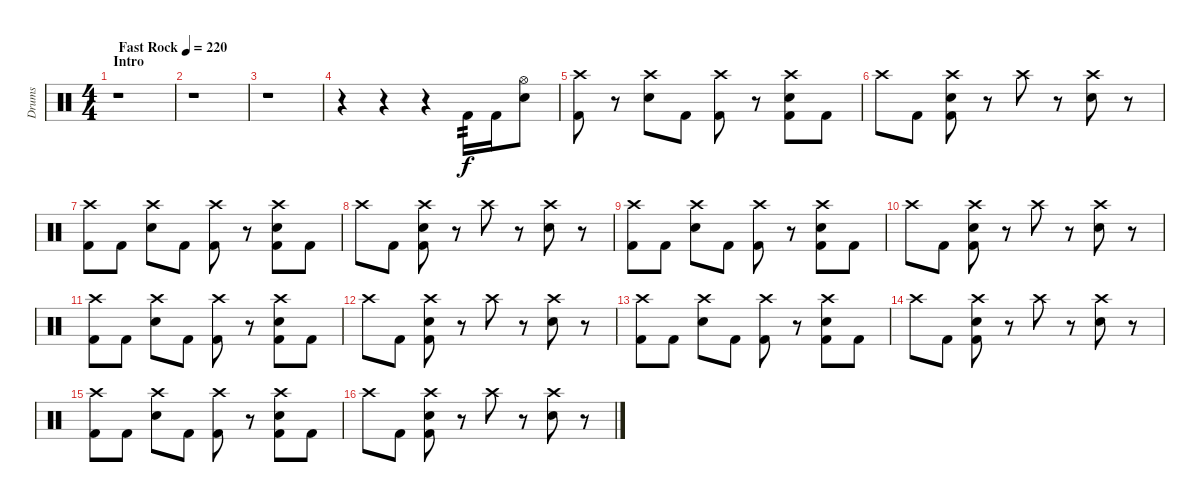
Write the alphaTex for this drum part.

\track ("Drums" "Drums") {instrument percussion}
\staff {score}
\articulation defaults
\ts (4 4)
\section ("" "Intro")
\tempo (220 "Fast Rock")
\clef neutral
\ks c
r.1{dy f} |
r.1 |
r.1 |
r.4 r.4 r.4 "Kick (hit) 2".16{tp 2} "Kick (hit) 2".16 ("Hi-Hat (open)" "Electric Snare (hit)").8 |
("Crash high (hit)" "Kick (hit) 2").8 r.8 ("Crash high (hit)" "Electric Snare (hit)").8 "Kick (hit) 2".8 ("Crash high (hit)" "Kick (hit) 2").8 r.8 ("Crash high (hit)" "Electric Snare (hit)" "Kick (hit) 2").8 "Kick (hit) 2".8 |
"Crash high (hit)".8 "Kick (hit) 2".8 ("Crash high (hit)" "Electric Snare (hit)" "Kick (hit) 2").8 r.8 "Crash high (hit)".8 r.8 ("Crash high (hit)" "Electric Snare (hit)").8 r.8 |
("Crash high (hit)" "Kick (hit) 2").8 "Kick (hit) 2".8 ("Crash high (hit)" "Electric Snare (hit)").8 "Kick (hit) 2".8 ("Crash high (hit)" "Kick (hit) 2").8 r.8 ("Crash high (hit)" "Electric Snare (hit)" "Kick (hit) 2").8 "Kick (hit) 2".8 |
"Crash high (hit)".8 "Kick (hit) 2".8 ("Crash high (hit)" "Electric Snare (hit)" "Kick (hit) 2").8 r.8 "Crash high (hit)".8 r.8 ("Crash high (hit)" "Electric Snare (hit)").8 r.8 |
("Crash high (hit)" "Kick (hit) 2").8 "Kick (hit) 2".8 ("Crash high (hit)" "Electric Snare (hit)").8 "Kick (hit) 2".8 ("Crash high (hit)" "Kick (hit) 2").8 r.8 ("Crash high (hit)" "Electric Snare (hit)" "Kick (hit) 2").8 "Kick (hit) 2".8 |
"Crash high (hit)".8 "Kick (hit) 2".8 ("Crash high (hit)" "Electric Snare (hit)" "Kick (hit) 2").8 r.8 "Crash high (hit)".8 r.8 ("Crash high (hit)" "Electric Snare (hit)").8 r.8 |
("Crash high (hit)" "Kick (hit) 2").8 "Kick (hit) 2".8 ("Crash high (hit)" "Electric Snare (hit)").8 "Kick (hit) 2".8 ("Crash high (hit)" "Kick (hit) 2").8 r.8 ("Crash high (hit)" "Electric Snare (hit)" "Kick (hit) 2").8 "Kick (hit) 2".8 |
"Crash high (hit)".8 "Kick (hit) 2".8 ("Crash high (hit)" "Electric Snare (hit)" "Kick (hit) 2").8 r.8 "Crash high (hit)".8 r.8 ("Crash high (hit)" "Electric Snare (hit)").8 r.8 |
("Crash high (hit)" "Kick (hit) 2").8 "Kick (hit) 2".8 ("Crash high (hit)" "Electric Snare (hit)").8 "Kick (hit) 2".8 ("Crash high (hit)" "Kick (hit) 2").8 r.8 ("Crash high (hit)" "Electric Snare (hit)" "Kick (hit) 2").8 "Kick (hit) 2".8 |
"Crash high (hit)".8 "Kick (hit) 2".8 ("Crash high (hit)" "Electric Snare (hit)" "Kick (hit) 2").8 r.8 "Crash high (hit)".8 r.8 ("Crash high (hit)" "Electric Snare (hit)").8 r.8 |
("Crash high (hit)" "Kick (hit) 2").8 "Kick (hit) 2".8 ("Crash high (hit)" "Electric Snare (hit)").8 "Kick (hit) 2".8 ("Crash high (hit)" "Kick (hit) 2").8 r.8 ("Crash high (hit)" "Electric Snare (hit)" "Kick (hit) 2").8 "Kick (hit) 2".8 |
"Crash high (hit)".8 "Kick (hit) 2".8 ("Crash high (hit)" "Electric Snare (hit)" "Kick (hit) 2").8 r.8 "Crash high (hit)".8 r.8 ("Crash high (hit)" "Electric Snare (hit)").8 r.8
